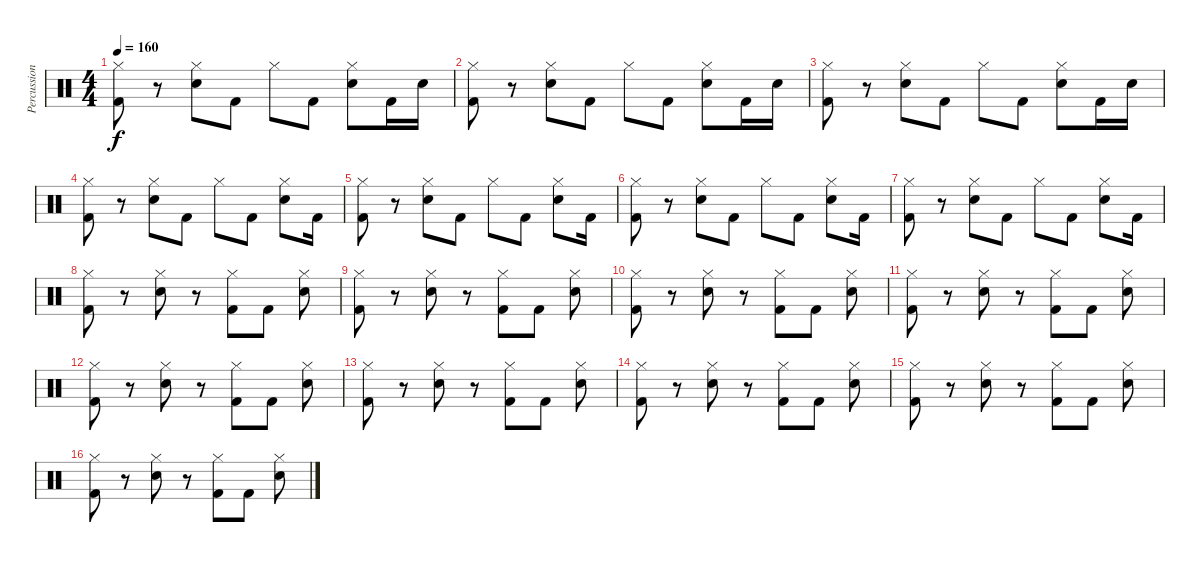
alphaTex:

\track ("Percussion" "Percussion") {instrument percussion}
\staff {score}
\articulation defaults
\ts (4 4)
\tempo 160
\clef neutral
\ks c
("Hi-Hat (closed)" "Kick (hit) 2").8{dy f} r.8 ("Hi-Hat (closed)" "Electric Snare (hit)").8 "Kick (hit) 2".8 "Hi-Hat (closed)".8 "Kick (hit) 2".8 ("Hi-Hat (closed)" "Electric Snare (hit)").8 "Kick (hit) 2".16 "Electric Snare (hit)".16 |
("Hi-Hat (closed)" "Kick (hit) 2").8 r.8 ("Hi-Hat (closed)" "Electric Snare (hit)").8 "Kick (hit) 2".8 "Hi-Hat (closed)".8 "Kick (hit) 2".8 ("Hi-Hat (closed)" "Electric Snare (hit)").8 "Kick (hit) 2".16 "Electric Snare (hit)".16 |
("Hi-Hat (closed)" "Kick (hit) 2").8 r.8 ("Hi-Hat (closed)" "Electric Snare (hit)").8 "Kick (hit) 2".8 "Hi-Hat (closed)".8 "Kick (hit) 2".8 ("Hi-Hat (closed)" "Electric Snare (hit)").8 "Kick (hit) 2".16 "Electric Snare (hit)".16 |
("Hi-Hat (closed)" "Kick (hit) 2").8 r.8 ("Hi-Hat (closed)" "Electric Snare (hit)").8 "Kick (hit) 2".8 "Hi-Hat (closed)".8 "Kick (hit) 2".8 ("Hi-Hat (closed)" "Electric Snare (hit)").8 "Kick (hit) 2".16 |
("Hi-Hat (closed)" "Kick (hit) 2").8 r.8 ("Hi-Hat (closed)" "Electric Snare (hit)").8 "Kick (hit) 2".8 "Hi-Hat (closed)".8 "Kick (hit) 2".8 ("Hi-Hat (closed)" "Electric Snare (hit)").8 "Kick (hit) 2".16 |
("Hi-Hat (closed)" "Kick (hit) 2").8 r.8 ("Hi-Hat (closed)" "Electric Snare (hit)").8 "Kick (hit) 2".8 "Hi-Hat (closed)".8 "Kick (hit) 2".8 ("Hi-Hat (closed)" "Electric Snare (hit)").8 "Kick (hit) 2".16 |
("Hi-Hat (closed)" "Kick (hit) 2").8 r.8 ("Hi-Hat (closed)" "Electric Snare (hit)").8 "Kick (hit) 2".8 "Hi-Hat (closed)".8 "Kick (hit) 2".8 ("Hi-Hat (closed)" "Electric Snare (hit)").8 "Kick (hit) 2".16 |
("Hi-Hat (closed)" "Kick (hit) 2").8 r.8 ("Hi-Hat (closed)" "Electric Snare (hit)").8 r.8 ("Hi-Hat (closed)" "Kick (hit) 2").8 "Kick (hit) 2".8 ("Hi-Hat (closed)" "Electric Snare (hit)").8 |
("Hi-Hat (closed)" "Kick (hit) 2").8 r.8 ("Hi-Hat (closed)" "Electric Snare (hit)").8 r.8 ("Hi-Hat (closed)" "Kick (hit) 2").8 "Kick (hit) 2".8 ("Hi-Hat (closed)" "Electric Snare (hit)").8 |
("Hi-Hat (closed)" "Kick (hit) 2").8 r.8 ("Hi-Hat (closed)" "Electric Snare (hit)").8 r.8 ("Hi-Hat (closed)" "Kick (hit) 2").8 "Kick (hit) 2".8 ("Hi-Hat (closed)" "Electric Snare (hit)").8 |
("Hi-Hat (closed)" "Kick (hit) 2").8 r.8 ("Hi-Hat (closed)" "Electric Snare (hit)").8 r.8 ("Hi-Hat (closed)" "Kick (hit) 2").8 "Kick (hit) 2".8 ("Hi-Hat (closed)" "Electric Snare (hit)").8 |
("Hi-Hat (closed)" "Kick (hit) 2").8 r.8 ("Hi-Hat (closed)" "Electric Snare (hit)").8 r.8 ("Hi-Hat (closed)" "Kick (hit) 2").8 "Kick (hit) 2".8 ("Hi-Hat (closed)" "Electric Snare (hit)").8 |
("Hi-Hat (closed)" "Kick (hit) 2").8 r.8 ("Hi-Hat (closed)" "Electric Snare (hit)").8 r.8 ("Hi-Hat (closed)" "Kick (hit) 2").8 "Kick (hit) 2".8 ("Hi-Hat (closed)" "Electric Snare (hit)").8 |
("Hi-Hat (closed)" "Kick (hit) 2").8 r.8 ("Hi-Hat (closed)" "Electric Snare (hit)").8 r.8 ("Hi-Hat (closed)" "Kick (hit) 2").8 "Kick (hit) 2".8 ("Hi-Hat (closed)" "Electric Snare (hit)").8 |
("Hi-Hat (closed)" "Kick (hit) 2").8 r.8 ("Hi-Hat (closed)" "Electric Snare (hit)").8 r.8 ("Hi-Hat (closed)" "Kick (hit) 2").8 "Kick (hit) 2".8 ("Hi-Hat (closed)" "Electric Snare (hit)").8 |
("Hi-Hat (closed)" "Kick (hit) 2").8 r.8 ("Hi-Hat (closed)" "Electric Snare (hit)").8 r.8 ("Hi-Hat (closed)" "Kick (hit) 2").8 "Kick (hit) 2".8 ("Hi-Hat (closed)" "Electric Snare (hit)").8
